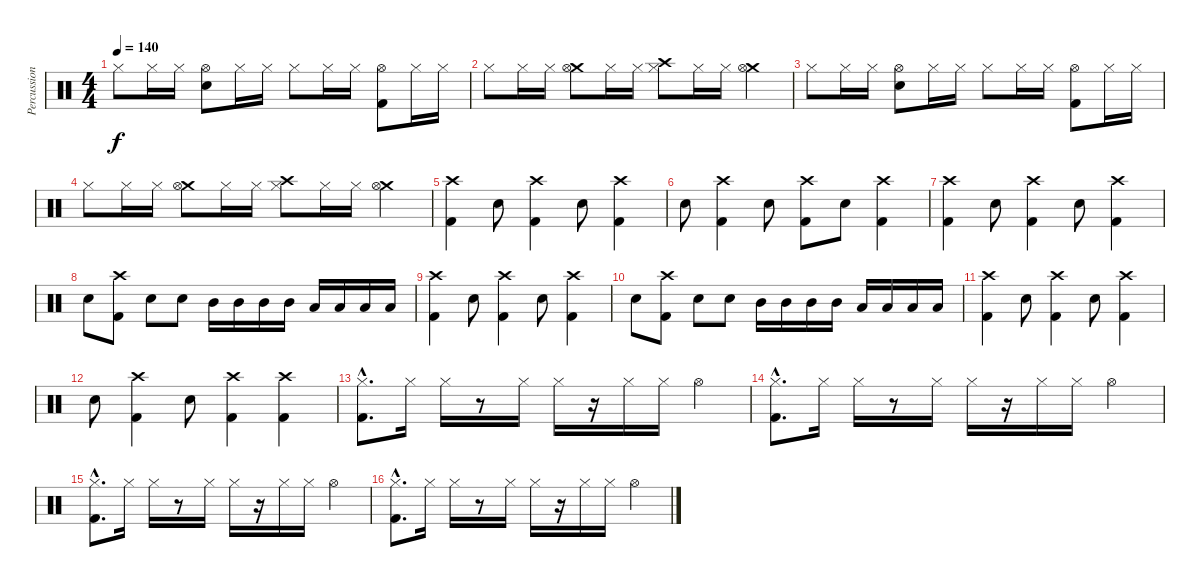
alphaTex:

\track ("Percussion" "Percussion") {instrument percussion}
\staff {score}
\articulation defaults
\ts (4 4)
\tempo 140
\clef neutral
\ks c "Hi-Hat (closed)".8{dy f} "Hi-Hat (closed)".16 "Hi-Hat (closed)".16
("Hi-Hat (open)" "Snare (hit) 2").8 "Hi-Hat (closed)".16 "Hi-Hat (closed)".16 "Hi-Hat (closed)".8 "Hi-Hat (closed)".16 "Hi-Hat (closed)".16 ("Hi-Hat (open)" "Kick (hit) 2").8 "Hi-Hat (closed)".16 "Hi-Hat (closed)".16 |
"Hi-Hat (closed)".8 "Hi-Hat (closed)".16 "Hi-Hat (closed)".16 ("Crash medium (hit)" "Hi-Hat (open)").8 "Hi-Hat (closed)".16 "Hi-Hat (closed)".16 ("Crash high (hit)" "Hi-Hat (closed)").8 "Hi-Hat (closed)".16 "Hi-Hat (closed)".16 ("Crash medium (hit)" "Hi-Hat (open)").4 |
"Hi-Hat (closed)".8 "Hi-Hat (closed)".16 "Hi-Hat (closed)".16 ("Hi-Hat (open)" "Snare (hit) 2").8 "Hi-Hat (closed)".16 "Hi-Hat (closed)".16 "Hi-Hat (closed)".8 "Hi-Hat (closed)".16 "Hi-Hat (closed)".16 ("Hi-Hat (open)" "Kick (hit) 2").8 "Hi-Hat (closed)".16 "Hi-Hat (closed)".16 |
"Hi-Hat (closed)".8 "Hi-Hat (closed)".16 "Hi-Hat (closed)".16 ("Crash medium (hit)" "Hi-Hat (open)").8 "Hi-Hat (closed)".16 "Hi-Hat (closed)".16 ("Crash high (hit)" "Hi-Hat (closed)").8 "Hi-Hat (closed)".16 "Hi-Hat (closed)".16 ("Crash medium (hit)" "Hi-Hat (open)").4 |
("Crash high (hit)" "Kick (hit) 2").4 "Electric Snare (hit)".8 ("Crash high (hit)" "Kick (hit) 2").4 "Electric Snare (hit)".8 ("Crash high (hit)" "Kick (hit) 2").4 |
"Electric Snare (hit)".8 ("Crash high (hit)" "Kick (hit) 2").4 "Electric Snare (hit)".8 ("Crash high (hit)" "Kick (hit) 2").8 "Electric Snare (hit)".8 ("Crash high (hit)" "Kick (hit) 2").4 |
("Crash high (hit)" "Kick (hit) 2").4 "Electric Snare (hit)".8 ("Crash high (hit)" "Kick (hit) 2").4 "Electric Snare (hit)".8 ("Crash high (hit)" "Kick (hit) 2").4 |
"Electric Snare (hit)".8 ("Crash high (hit)" "Kick (hit) 2").8 "Electric Snare (hit)".8 "Electric Snare (hit)".8 "Mid Tom (hit)".16 "Mid Tom (hit)".16 "Mid Tom (hit)".16 "Mid Tom (hit)".16 "Low Tom (hit)".16 "Low Tom (hit)".16 "Low Tom (hit)".16 "Low Tom (hit)".16 |
("Crash high (hit)" "Kick (hit) 2").4 "Electric Snare (hit)".8 ("Crash high (hit)" "Kick (hit) 2").4 "Electric Snare (hit)".8 ("Crash high (hit)" "Kick (hit) 2").4 |
"Electric Snare (hit)".8 ("Crash high (hit)" "Kick (hit) 2").8 "Electric Snare (hit)".8 "Electric Snare (hit)".8 "Mid Tom (hit)".16 "Mid Tom (hit)".16 "Mid Tom (hit)".16 "Mid Tom (hit)".16 "Low Tom (hit)".16 "Low Tom (hit)".16 "Low Tom (hit)".16 "Low Tom (hit)".16 |
("Crash high (hit)" "Kick (hit) 2").4 "Electric Snare (hit)".8 ("Crash high (hit)" "Kick (hit) 2").4 "Electric Snare (hit)".8 ("Crash high (hit)" "Kick (hit) 2").4 |
"Electric Snare (hit)".8 ("Crash high (hit)" "Kick (hit) 2").4 "Electric Snare (hit)".8 ("Crash high (hit)" "Kick (hit) 2").4 ("Crash high (hit)" "Kick (hit) 2").4 |
("Hi-Hat (closed)"{hac} "Kick (hit) 2"{hac}).8{d} "Hi-Hat (closed)".16 "Hi-Hat (closed)".16 r.8 "Hi-Hat (closed)".16 "Hi-Hat (closed)".16 r.16 "Hi-Hat (closed)".16 "Hi-Hat (closed)".16 "Hi-Hat (open)".4 |
("Hi-Hat (closed)"{hac} "Kick (hit) 2"{hac}).8{d} "Hi-Hat (closed)".16 "Hi-Hat (closed)".16 r.8 "Hi-Hat (closed)".16 "Hi-Hat (closed)".16 r.16 "Hi-Hat (closed)".16 "Hi-Hat (closed)".16 "Hi-Hat (open)".4 |
("Hi-Hat (closed)"{hac} "Kick (hit) 2"{hac}).8{d} "Hi-Hat (closed)".16 "Hi-Hat (closed)".16 r.8 "Hi-Hat (closed)".16 "Hi-Hat (closed)".16 r.16 "Hi-Hat (closed)".16 "Hi-Hat (closed)".16 "Hi-Hat (open)".4 |
("Hi-Hat (closed)"{hac} "Kick (hit) 2"{hac}).8{d} "Hi-Hat (closed)".16 "Hi-Hat (closed)".16 r.8 "Hi-Hat (closed)".16 "Hi-Hat (closed)".16 r.16 "Hi-Hat (closed)".16 "Hi-Hat (closed)".16 "Hi-Hat (open)".4
